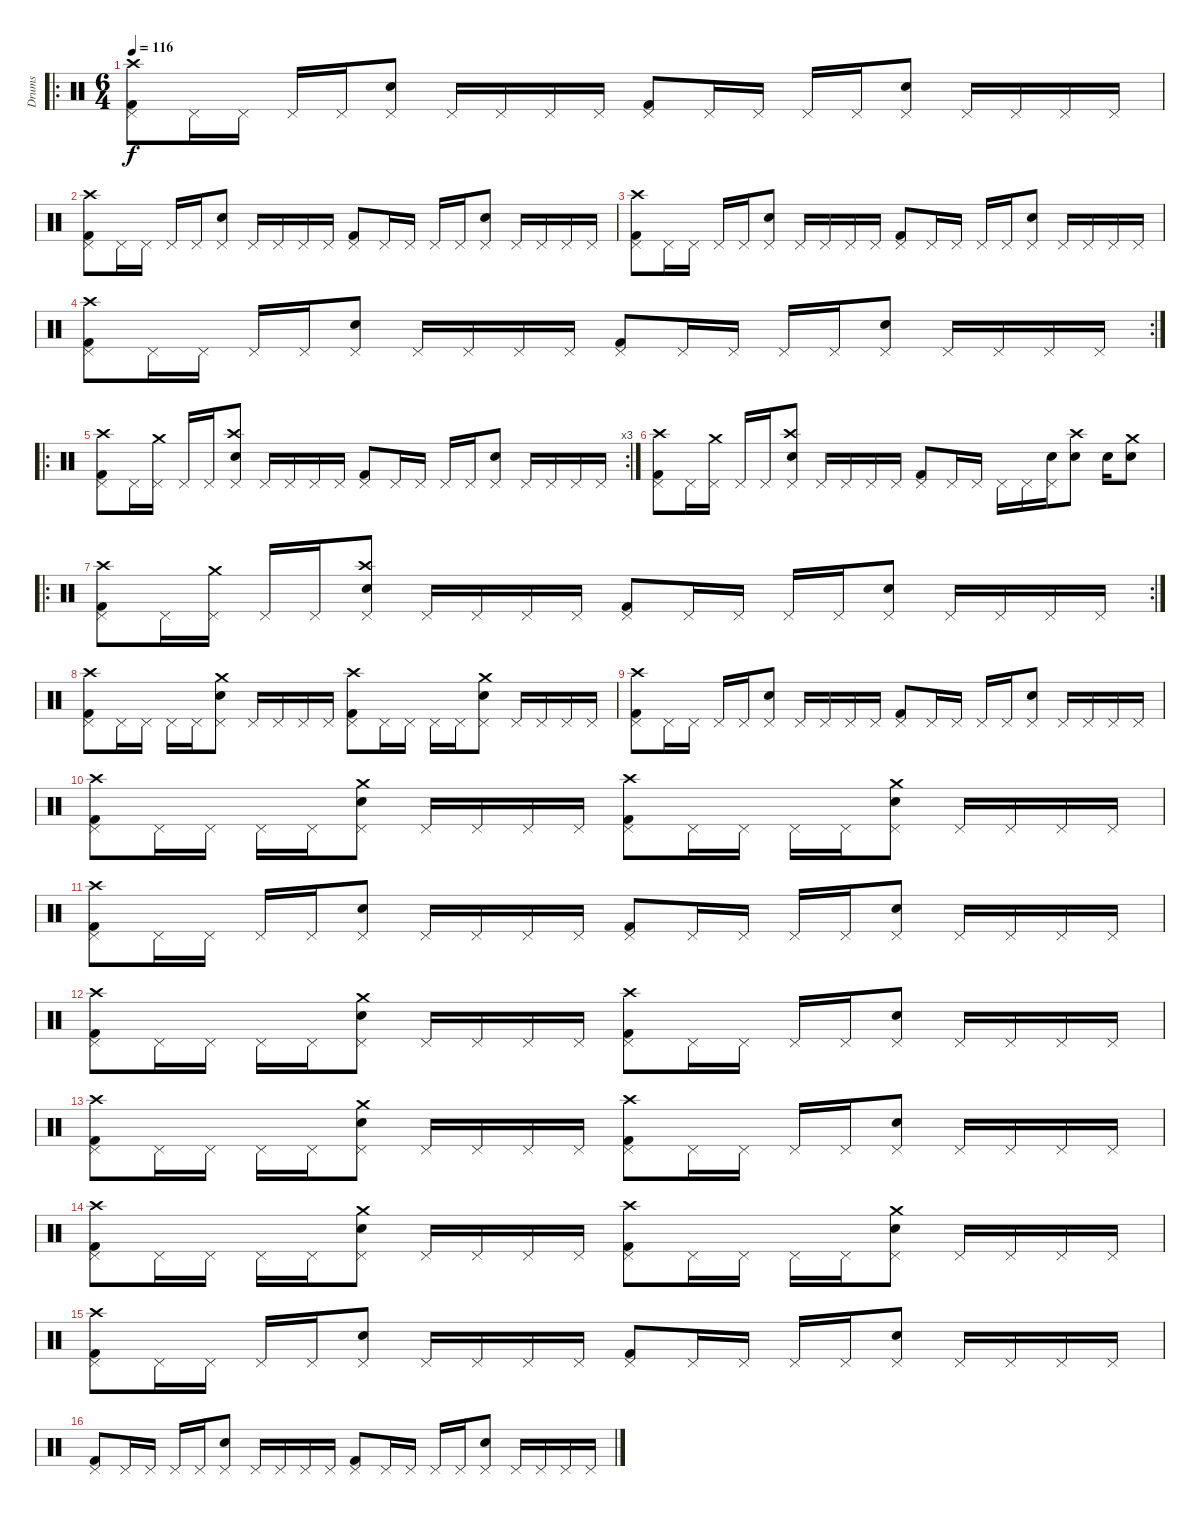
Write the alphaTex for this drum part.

\track ("Drums" "Drums") {instrument percussion}
\staff {score}
\articulation defaults
\ro
\ts (6 4)
\tempo 116
\clef neutral
\ks c
("Kick (hit) 2" "Pedal Hi-Hat (hit)" "Crash high (hit)").8{dy f} "Pedal Hi-Hat (hit)".16 "Pedal Hi-Hat (hit)".16 "Pedal Hi-Hat (hit)".16 "Pedal Hi-Hat (hit)".16 ("Snare (hit) 2" "Pedal Hi-Hat (hit)").8 "Pedal Hi-Hat (hit)".16 "Pedal Hi-Hat (hit)".16 "Pedal Hi-Hat (hit)".16 "Pedal Hi-Hat (hit)".16 ("Kick (hit) 2" "Pedal Hi-Hat (hit)").8 "Pedal Hi-Hat (hit)".16 "Pedal Hi-Hat (hit)".16 "Pedal Hi-Hat (hit)".16 "Pedal Hi-Hat (hit)".16 ("Snare (hit) 2" "Pedal Hi-Hat (hit)").8 "Pedal Hi-Hat (hit)".16 "Pedal Hi-Hat (hit)".16 "Pedal Hi-Hat (hit)".16 "Pedal Hi-Hat (hit)".16 |
("Kick (hit) 2" "Pedal Hi-Hat (hit)" "Crash high (hit)").8 "Pedal Hi-Hat (hit)".16 "Pedal Hi-Hat (hit)".16 "Pedal Hi-Hat (hit)".16 "Pedal Hi-Hat (hit)".16 ("Snare (hit) 2" "Pedal Hi-Hat (hit)").8 "Pedal Hi-Hat (hit)".16 "Pedal Hi-Hat (hit)".16 "Pedal Hi-Hat (hit)".16 "Pedal Hi-Hat (hit)".16 ("Kick (hit) 2" "Pedal Hi-Hat (hit)").8 "Pedal Hi-Hat (hit)".16 "Pedal Hi-Hat (hit)".16 "Pedal Hi-Hat (hit)".16 "Pedal Hi-Hat (hit)".16 ("Snare (hit) 2" "Pedal Hi-Hat (hit)").8 "Pedal Hi-Hat (hit)".16 "Pedal Hi-Hat (hit)".16 "Pedal Hi-Hat (hit)".16 "Pedal Hi-Hat (hit)".16 |
("Kick (hit) 2" "Pedal Hi-Hat (hit)" "Crash high (hit)").8 "Pedal Hi-Hat (hit)".16 "Pedal Hi-Hat (hit)".16 "Pedal Hi-Hat (hit)".16 "Pedal Hi-Hat (hit)".16 ("Snare (hit) 2" "Pedal Hi-Hat (hit)").8 "Pedal Hi-Hat (hit)".16 "Pedal Hi-Hat (hit)".16 "Pedal Hi-Hat (hit)".16 "Pedal Hi-Hat (hit)".16 ("Kick (hit) 2" "Pedal Hi-Hat (hit)").8 "Pedal Hi-Hat (hit)".16 "Pedal Hi-Hat (hit)".16 "Pedal Hi-Hat (hit)".16 "Pedal Hi-Hat (hit)".16 ("Snare (hit) 2" "Pedal Hi-Hat (hit)").8 "Pedal Hi-Hat (hit)".16 "Pedal Hi-Hat (hit)".16 "Pedal Hi-Hat (hit)".16 "Pedal Hi-Hat (hit)".16 |
\rc 2
("Kick (hit) 2" "Pedal Hi-Hat (hit)" "Crash high (hit)").8 "Pedal Hi-Hat (hit)".16 "Pedal Hi-Hat (hit)".16 "Pedal Hi-Hat (hit)".16 "Pedal Hi-Hat (hit)".16 ("Snare (hit) 2" "Pedal Hi-Hat (hit)").8 "Pedal Hi-Hat (hit)".16 "Pedal Hi-Hat (hit)".16 "Pedal Hi-Hat (hit)".16 "Pedal Hi-Hat (hit)".16 ("Kick (hit) 2" "Pedal Hi-Hat (hit)").8 "Pedal Hi-Hat (hit)".16 "Pedal Hi-Hat (hit)".16 "Pedal Hi-Hat (hit)".16 "Pedal Hi-Hat (hit)".16 ("Snare (hit) 2" "Pedal Hi-Hat (hit)").8 "Pedal Hi-Hat (hit)".16 "Pedal Hi-Hat (hit)".16 "Pedal Hi-Hat (hit)".16 "Pedal Hi-Hat (hit)".16 |
\ro
\rc 3
("Kick (hit) 2" "Pedal Hi-Hat (hit)" "Crash high (hit)").8 "Pedal Hi-Hat (hit)".16 ("Pedal Hi-Hat (hit)" "Crash medium (hit)").16 "Pedal Hi-Hat (hit)".16 "Pedal Hi-Hat (hit)".16 ("Snare (hit) 2" "Pedal Hi-Hat (hit)" "Crash high (hit)").8 "Pedal Hi-Hat (hit)".16 "Pedal Hi-Hat (hit)".16 "Pedal Hi-Hat (hit)".16 "Pedal Hi-Hat (hit)".16 ("Kick (hit) 2" "Pedal Hi-Hat (hit)").8 "Pedal Hi-Hat (hit)".16 "Pedal Hi-Hat (hit)".16 "Pedal Hi-Hat (hit)".16 "Pedal Hi-Hat (hit)".16 ("Snare (hit) 2" "Pedal Hi-Hat (hit)").8 "Pedal Hi-Hat (hit)".16 "Pedal Hi-Hat (hit)".16 "Pedal Hi-Hat (hit)".16 "Pedal Hi-Hat (hit)".16 |
("Kick (hit) 2" "Pedal Hi-Hat (hit)" "Crash high (hit)").8 "Pedal Hi-Hat (hit)".16 ("Pedal Hi-Hat (hit)" "Crash medium (hit)").16 "Pedal Hi-Hat (hit)".16 "Pedal Hi-Hat (hit)".16 ("Snare (hit) 2" "Pedal Hi-Hat (hit)" "Crash high (hit)").8 "Pedal Hi-Hat (hit)".16 "Pedal Hi-Hat (hit)".16 "Pedal Hi-Hat (hit)".16 "Pedal Hi-Hat (hit)".16 ("Kick (hit) 2" "Pedal Hi-Hat (hit)").8 "Pedal Hi-Hat (hit)".16 "Pedal Hi-Hat (hit)".16 "Pedal Hi-Hat (hit)".16 "Pedal Hi-Hat (hit)".16 ("Snare (hit) 2" "Pedal Hi-Hat (hit)").16 ("Snare (hit) 2" "Crash high (hit)").8 "Snare (hit) 2".16 ("Snare (hit) 2" "Crash medium (hit)").8 |
\ro
\rc 2
("Kick (hit) 2" "Pedal Hi-Hat (hit)" "Crash high (hit)").8 "Pedal Hi-Hat (hit)".16 ("Pedal Hi-Hat (hit)" "Crash medium (hit)").16 "Pedal Hi-Hat (hit)".16 "Pedal Hi-Hat (hit)".16 ("Snare (hit) 2" "Pedal Hi-Hat (hit)" "Crash high (hit)").8 "Pedal Hi-Hat (hit)".16 "Pedal Hi-Hat (hit)".16 "Pedal Hi-Hat (hit)".16 "Pedal Hi-Hat (hit)".16 ("Kick (hit) 2" "Pedal Hi-Hat (hit)").8 "Pedal Hi-Hat (hit)".16 "Pedal Hi-Hat (hit)".16 "Pedal Hi-Hat (hit)".16 "Pedal Hi-Hat (hit)".16 ("Snare (hit) 2" "Pedal Hi-Hat (hit)").8 "Pedal Hi-Hat (hit)".16 "Pedal Hi-Hat (hit)".16 "Pedal Hi-Hat (hit)".16 "Pedal Hi-Hat (hit)".16 |
("Kick (hit) 2" "Pedal Hi-Hat (hit)" "Crash high (hit)").8 "Pedal Hi-Hat (hit)".16 "Pedal Hi-Hat (hit)".16 "Pedal Hi-Hat (hit)".16 "Pedal Hi-Hat (hit)".16 ("Snare (hit) 2" "Pedal Hi-Hat (hit)" "Crash medium (hit)").8 "Pedal Hi-Hat (hit)".16 "Pedal Hi-Hat (hit)".16 "Pedal Hi-Hat (hit)".16 "Pedal Hi-Hat (hit)".16 ("Kick (hit) 2" "Pedal Hi-Hat (hit)" "Crash high (hit)").8 "Pedal Hi-Hat (hit)".16 "Pedal Hi-Hat (hit)".16 "Pedal Hi-Hat (hit)".16 "Pedal Hi-Hat (hit)".16 ("Snare (hit) 2" "Pedal Hi-Hat (hit)" "Crash medium (hit)").8 "Pedal Hi-Hat (hit)".16 "Pedal Hi-Hat (hit)".16 "Pedal Hi-Hat (hit)".16 "Pedal Hi-Hat (hit)".16 |
("Kick (hit) 2" "Pedal Hi-Hat (hit)" "Crash high (hit)").8 "Pedal Hi-Hat (hit)".16 "Pedal Hi-Hat (hit)".16 "Pedal Hi-Hat (hit)".16 "Pedal Hi-Hat (hit)".16 ("Snare (hit) 2" "Pedal Hi-Hat (hit)").8 "Pedal Hi-Hat (hit)".16 "Pedal Hi-Hat (hit)".16 "Pedal Hi-Hat (hit)".16 "Pedal Hi-Hat (hit)".16 ("Kick (hit) 2" "Pedal Hi-Hat (hit)").8 "Pedal Hi-Hat (hit)".16 "Pedal Hi-Hat (hit)".16 "Pedal Hi-Hat (hit)".16 "Pedal Hi-Hat (hit)".16 ("Snare (hit) 2" "Pedal Hi-Hat (hit)").8 "Pedal Hi-Hat (hit)".16 "Pedal Hi-Hat (hit)".16 "Pedal Hi-Hat (hit)".16 "Pedal Hi-Hat (hit)".16 |
("Kick (hit) 2" "Pedal Hi-Hat (hit)" "Crash high (hit)").8 "Pedal Hi-Hat (hit)".16 "Pedal Hi-Hat (hit)".16 "Pedal Hi-Hat (hit)".16 "Pedal Hi-Hat (hit)".16 ("Snare (hit) 2" "Pedal Hi-Hat (hit)" "Crash medium (hit)").8 "Pedal Hi-Hat (hit)".16 "Pedal Hi-Hat (hit)".16 "Pedal Hi-Hat (hit)".16 "Pedal Hi-Hat (hit)".16 ("Kick (hit) 2" "Pedal Hi-Hat (hit)" "Crash high (hit)").8 "Pedal Hi-Hat (hit)".16 "Pedal Hi-Hat (hit)".16 "Pedal Hi-Hat (hit)".16 "Pedal Hi-Hat (hit)".16 ("Snare (hit) 2" "Pedal Hi-Hat (hit)" "Crash medium (hit)").8 "Pedal Hi-Hat (hit)".16 "Pedal Hi-Hat (hit)".16 "Pedal Hi-Hat (hit)".16 "Pedal Hi-Hat (hit)".16 |
("Kick (hit) 2" "Pedal Hi-Hat (hit)" "Crash high (hit)").8 "Pedal Hi-Hat (hit)".16 "Pedal Hi-Hat (hit)".16 "Pedal Hi-Hat (hit)".16 "Pedal Hi-Hat (hit)".16 ("Snare (hit) 2" "Pedal Hi-Hat (hit)").8 "Pedal Hi-Hat (hit)".16 "Pedal Hi-Hat (hit)".16 "Pedal Hi-Hat (hit)".16 "Pedal Hi-Hat (hit)".16 ("Kick (hit) 2" "Pedal Hi-Hat (hit)").8 "Pedal Hi-Hat (hit)".16 "Pedal Hi-Hat (hit)".16 "Pedal Hi-Hat (hit)".16 "Pedal Hi-Hat (hit)".16 ("Snare (hit) 2" "Pedal Hi-Hat (hit)").8 "Pedal Hi-Hat (hit)".16 "Pedal Hi-Hat (hit)".16 "Pedal Hi-Hat (hit)".16 "Pedal Hi-Hat (hit)".16 |
("Kick (hit) 2" "Pedal Hi-Hat (hit)" "Crash high (hit)").8 "Pedal Hi-Hat (hit)".16 "Pedal Hi-Hat (hit)".16 "Pedal Hi-Hat (hit)".16 "Pedal Hi-Hat (hit)".16 ("Snare (hit) 2" "Pedal Hi-Hat (hit)" "Crash medium (hit)").8 "Pedal Hi-Hat (hit)".16 "Pedal Hi-Hat (hit)".16 "Pedal Hi-Hat (hit)".16 "Pedal Hi-Hat (hit)".16 ("Kick (hit) 2" "Pedal Hi-Hat (hit)" "Crash high (hit)").8 "Pedal Hi-Hat (hit)".16 "Pedal Hi-Hat (hit)".16 "Pedal Hi-Hat (hit)".16 "Pedal Hi-Hat (hit)".16 ("Snare (hit) 2" "Pedal Hi-Hat (hit)").8 "Pedal Hi-Hat (hit)".16 "Pedal Hi-Hat (hit)".16 "Pedal Hi-Hat (hit)".16 "Pedal Hi-Hat (hit)".16 |
("Kick (hit) 2" "Pedal Hi-Hat (hit)" "Crash high (hit)").8 "Pedal Hi-Hat (hit)".16 "Pedal Hi-Hat (hit)".16 "Pedal Hi-Hat (hit)".16 "Pedal Hi-Hat (hit)".16 ("Snare (hit) 2" "Pedal Hi-Hat (hit)" "Crash medium (hit)").8 "Pedal Hi-Hat (hit)".16 "Pedal Hi-Hat (hit)".16 "Pedal Hi-Hat (hit)".16 "Pedal Hi-Hat (hit)".16 ("Kick (hit) 2" "Pedal Hi-Hat (hit)" "Crash high (hit)").8 "Pedal Hi-Hat (hit)".16 "Pedal Hi-Hat (hit)".16 "Pedal Hi-Hat (hit)".16 "Pedal Hi-Hat (hit)".16 ("Snare (hit) 2" "Pedal Hi-Hat (hit)").8 "Pedal Hi-Hat (hit)".16 "Pedal Hi-Hat (hit)".16 "Pedal Hi-Hat (hit)".16 "Pedal Hi-Hat (hit)".16 |
("Kick (hit) 2" "Pedal Hi-Hat (hit)" "Crash high (hit)").8 "Pedal Hi-Hat (hit)".16 "Pedal Hi-Hat (hit)".16 "Pedal Hi-Hat (hit)".16 "Pedal Hi-Hat (hit)".16 ("Snare (hit) 2" "Pedal Hi-Hat (hit)" "Crash medium (hit)").8 "Pedal Hi-Hat (hit)".16 "Pedal Hi-Hat (hit)".16 "Pedal Hi-Hat (hit)".16 "Pedal Hi-Hat (hit)".16 ("Kick (hit) 2" "Pedal Hi-Hat (hit)" "Crash high (hit)").8 "Pedal Hi-Hat (hit)".16 "Pedal Hi-Hat (hit)".16 "Pedal Hi-Hat (hit)".16 "Pedal Hi-Hat (hit)".16 ("Snare (hit) 2" "Pedal Hi-Hat (hit)" "Crash medium (hit)").8 "Pedal Hi-Hat (hit)".16 "Pedal Hi-Hat (hit)".16 "Pedal Hi-Hat (hit)".16 "Pedal Hi-Hat (hit)".16 |
("Kick (hit) 2" "Pedal Hi-Hat (hit)" "Crash high (hit)").8 "Pedal Hi-Hat (hit)".16 "Pedal Hi-Hat (hit)".16 "Pedal Hi-Hat (hit)".16 "Pedal Hi-Hat (hit)".16 ("Snare (hit) 2" "Pedal Hi-Hat (hit)").8 "Pedal Hi-Hat (hit)".16 "Pedal Hi-Hat (hit)".16 "Pedal Hi-Hat (hit)".16 "Pedal Hi-Hat (hit)".16 ("Kick (hit) 2" "Pedal Hi-Hat (hit)").8 "Pedal Hi-Hat (hit)".16 "Pedal Hi-Hat (hit)".16 "Pedal Hi-Hat (hit)".16 "Pedal Hi-Hat (hit)".16 ("Snare (hit) 2" "Pedal Hi-Hat (hit)").8 "Pedal Hi-Hat (hit)".16 "Pedal Hi-Hat (hit)".16 "Pedal Hi-Hat (hit)".16 "Pedal Hi-Hat (hit)".16 |
("Kick (hit) 2" "Pedal Hi-Hat (hit)").8 "Pedal Hi-Hat (hit)".16 "Pedal Hi-Hat (hit)".16 "Pedal Hi-Hat (hit)".16 "Pedal Hi-Hat (hit)".16 ("Snare (hit) 2" "Pedal Hi-Hat (hit)").8 "Pedal Hi-Hat (hit)".16 "Pedal Hi-Hat (hit)".16 "Pedal Hi-Hat (hit)".16 "Pedal Hi-Hat (hit)".16 ("Kick (hit) 2" "Pedal Hi-Hat (hit)").8 "Pedal Hi-Hat (hit)".16 "Pedal Hi-Hat (hit)".16 "Pedal Hi-Hat (hit)".16 "Pedal Hi-Hat (hit)".16 ("Snare (hit) 2" "Pedal Hi-Hat (hit)").8 "Pedal Hi-Hat (hit)".16 "Pedal Hi-Hat (hit)".16 "Pedal Hi-Hat (hit)".16 "Pedal Hi-Hat (hit)".16
